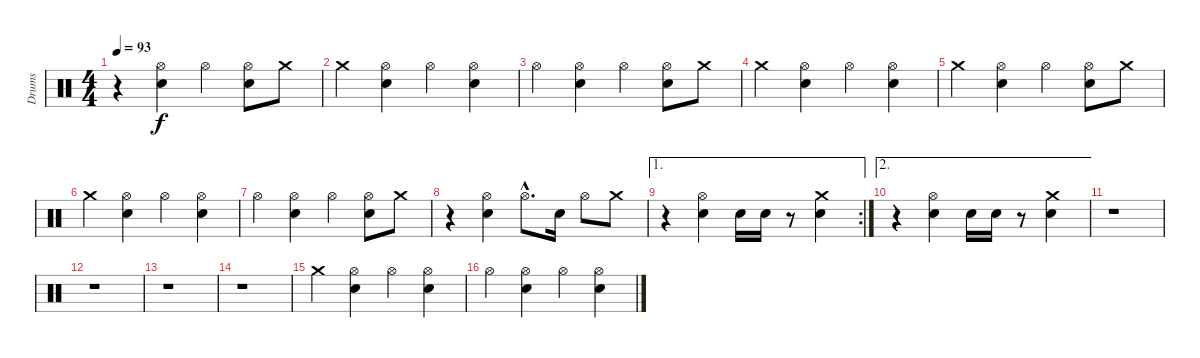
\track ("Drums" "Drums") {instrument percussion}
\staff {score}
\articulation defaults
\ts (4 4)
\tempo 93
\clef neutral
\ks c
r.4{dy f} ("Hi-Hat (open)" "Electric Snare (hit)").4 "Hi-Hat (open)".4 ("Hi-Hat (open)" "Electric Snare (hit)").8 "Crash medium (hit)".8 |
"Crash medium (hit)".4 ("Hi-Hat (open)" "Electric Snare (hit)").4 "Hi-Hat (open)".4 ("Hi-Hat (open)" "Electric Snare (hit)").4 |
"Hi-Hat (open)".4 ("Hi-Hat (open)" "Electric Snare (hit)").4 "Hi-Hat (open)".4 ("Hi-Hat (open)" "Electric Snare (hit)").8 "Crash medium (hit)".8 |
"Crash medium (hit)".4 ("Hi-Hat (open)" "Electric Snare (hit)").4 "Hi-Hat (open)".4 ("Hi-Hat (open)" "Electric Snare (hit)").4 |
"Crash medium (hit)".4 ("Hi-Hat (open)" "Electric Snare (hit)").4 "Hi-Hat (open)".4 ("Hi-Hat (open)" "Electric Snare (hit)").8 "Crash medium (hit)".8 |
"Crash medium (hit)".4 ("Hi-Hat (open)" "Electric Snare (hit)").4 "Hi-Hat (open)".4 ("Hi-Hat (open)" "Electric Snare (hit)").4 |
"Hi-Hat (open)".4 ("Hi-Hat (open)" "Electric Snare (hit)").4 "Hi-Hat (open)".4 ("Hi-Hat (open)" "Electric Snare (hit)").8 "Crash medium (hit)".8 |
r.4 ("Hi-Hat (open)" "Electric Snare (hit)").4 "Hi-Hat (open)"{hac}.8{d} "Electric Snare (hit)".16 "Hi-Hat (open)".8 "Crash medium (hit)".8 |
\ae 1
\rc 2
r.4 ("Hi-Hat (open)" "Electric Snare (hit)").4 "Electric Snare (hit)".16 "Electric Snare (hit)".16 r.8 ("Crash medium (hit)" "Electric Snare (hit)").4 |
\ae 2
r.4 ("Hi-Hat (open)" "Electric Snare (hit)").4 "Electric Snare (hit)".16 "Electric Snare (hit)".16 r.8 ("Crash medium (hit)" "Electric Snare (hit)").4 |
r.1 |
r.1 |
r.1 |
r.1 |
"Crash medium (hit)".4 ("Hi-Hat (open)" "Electric Snare (hit)").4 "Hi-Hat (open)".4 ("Hi-Hat (open)" "Electric Snare (hit)").4 |
"Hi-Hat (open)".4 ("Hi-Hat (open)" "Electric Snare (hit)").4 "Hi-Hat (open)".4 ("Hi-Hat (open)" "Electric Snare (hit)").4
